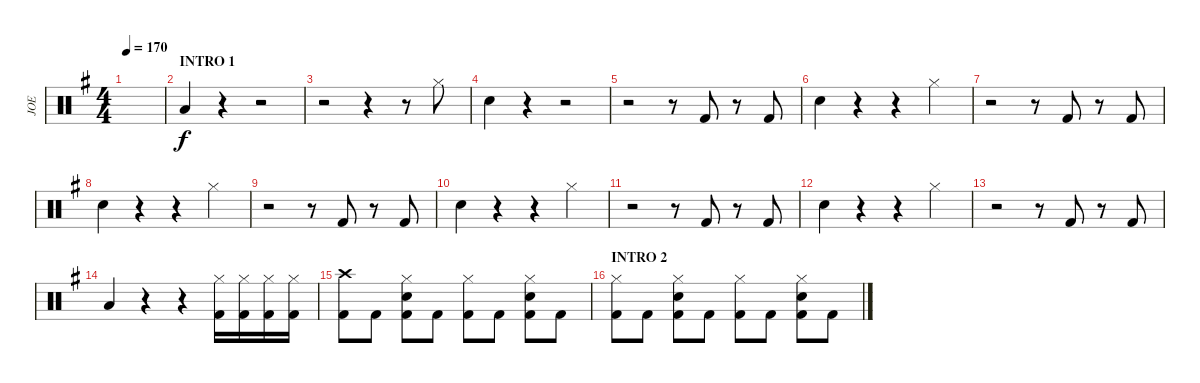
\track ("JOE" "JOE") {instrument percussion}
\staff {score}
\articulation defaults
\ts (4 4)
\tempo 170
\clef neutral
\ks eminor
|
\section ("" "INTRO 1")
"Low Floor Tom (hit)".4 r.4 r.2 |
r.2 r.4 r.8 "Hi-Hat (closed)".8 |
"Snare (hit) 2".4 r.4 r.2 |
r.2 r.8 "Kick (hit) 2".8 r.8 "Kick (hit) 2".8 |
"Snare (hit) 2".4 r.4 r.4 "Hi-Hat (closed)".4 |
r.2 r.8 "Kick (hit) 2".8 r.8 "Kick (hit) 2".8 |
"Snare (hit) 2".4 r.4 r.4 "Hi-Hat (closed)".4 |
r.2 r.8 "Kick (hit) 2".8 r.8 "Kick (hit) 2".8 |
"Snare (hit) 2".4 r.4 r.4 "Hi-Hat (closed)".4 |
r.2 r.8 "Kick (hit) 2".8 r.8 "Kick (hit) 2".8 |
"Snare (hit) 2".4 r.4 r.4 "Hi-Hat (closed)".4 |
r.2 r.8 "Kick (hit) 2".8 r.8 "Kick (hit) 2".8 |
"Low Floor Tom (hit)".4 r.4 r.4 ("Hi-Hat (closed)" "Kick (hit) 2").16 ("Hi-Hat (closed)" "Kick (hit) 2").16 ("Hi-Hat (closed)" "Kick (hit) 2").16 ("Hi-Hat (closed)" "Kick (hit) 2").16 |
("Crash high (hit)" "Kick (hit) 2").8 "Kick (hit) 2".8 ("Hi-Hat (closed)" "Snare (hit) 2" "Kick (hit) 2").8 "Kick (hit) 2".8 ("Hi-Hat (closed)" "Kick (hit) 2").8 "Kick (hit) 2".8 ("Hi-Hat (closed)" "Snare (hit) 2" "Kick (hit) 2").8 "Kick (hit) 2".8 |
\section ("" "INTRO 2")
("Hi-Hat (closed)" "Kick (hit) 2").8 "Kick (hit) 2".8 ("Hi-Hat (closed)" "Kick (hit) 2" "Snare (hit) 2").8 "Kick (hit) 2".8 ("Hi-Hat (closed)" "Kick (hit) 2").8 "Kick (hit) 2".8 ("Hi-Hat (closed)" "Kick (hit) 2" "Snare (hit) 2").8 "Kick (hit) 2".8
